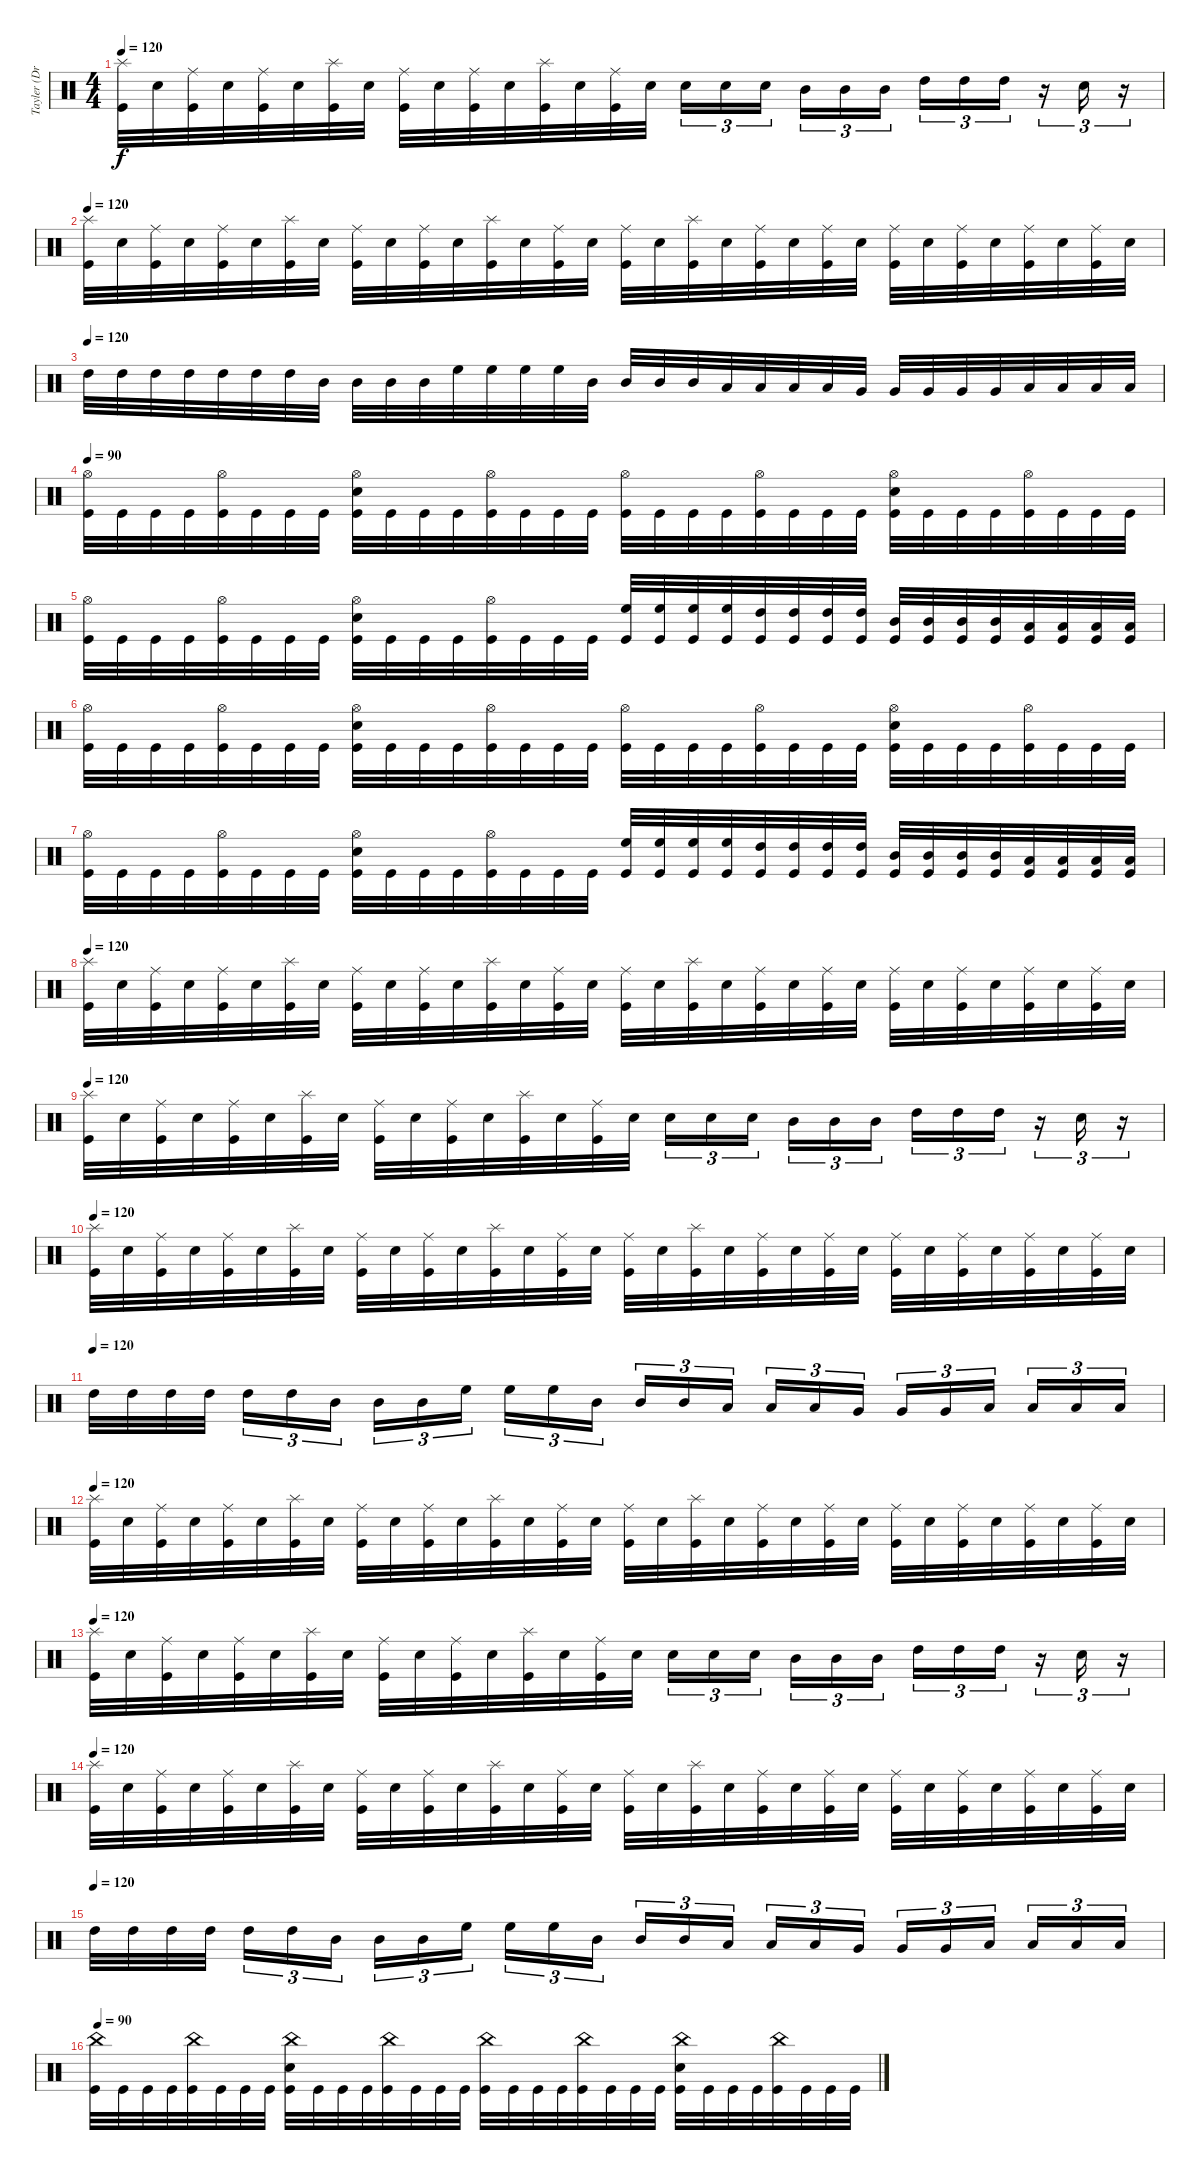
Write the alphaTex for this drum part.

\track ("Tayler (Drums)" "Tayler (Dr") {instrument percussion}
\staff {score}
\articulation defaults
\ts (4 4)
\tempo 120
\clef neutral
\ks c
("Splash (hit)" "Kick (hit)").32{dy f} "Electric Snare (hit)".32 ("Ride (middle)" "Kick (hit)").32 "Electric Snare (hit)".32 ("Ride (middle)" "Kick (hit)").32 "Electric Snare (hit)".32 ("Splash (hit)" "Kick (hit)").32 "Electric Snare (hit)".32 ("Ride (middle)" "Kick (hit)").32 "Electric Snare (hit)".32 ("Ride (middle)" "Kick (hit)").32 "Electric Snare (hit)".32 ("Splash (hit)" "Kick (hit)").32 "Electric Snare (hit)".32 ("Ride (middle)" "Kick (hit)").32 "Electric Snare (hit)".32 "Electric Snare (hit)".16{tu (3 2)} "Electric Snare (hit)".16{tu (3 2)} "Electric Snare (hit)".16{tu (3 2)} "Mid Tom (hit)".16{tu (3 2)} "Mid Tom (hit)".16{tu (3 2)} "Mid Tom (hit)".16{tu (3 2)} "High Tom (hit)".16{tu (3 2)} "High Tom (hit)".16{tu (3 2)} "High Tom (hit)".16{tu (3 2)} r.16{tu (3 2)} "Electric Snare (hit)".16{tu (3 2)} r.16{tu (3 2)} |
\tempo 120
("Splash (hit)" "Kick (hit)").32 "Electric Snare (hit)".32 ("Ride (middle)" "Kick (hit)").32 "Electric Snare (hit)".32 ("Ride (middle)" "Kick (hit)").32 "Electric Snare (hit)".32 ("Splash (hit)" "Kick (hit)").32 "Electric Snare (hit)".32 ("Ride (middle)" "Kick (hit)").32 "Electric Snare (hit)".32 ("Ride (middle)" "Kick (hit)").32 "Electric Snare (hit)".32 ("Splash (hit)" "Kick (hit)").32 "Electric Snare (hit)".32 ("Ride (middle)" "Kick (hit)").32 "Electric Snare (hit)".32 ("Ride (middle)" "Kick (hit)").32 "Electric Snare (hit)".32 ("Splash (hit)" "Kick (hit)").32 "Electric Snare (hit)".32 ("Ride (middle)" "Kick (hit)").32 "Electric Snare (hit)".32 ("Ride (middle)" "Kick (hit)").32 "Electric Snare (hit)".32 ("Ride (middle)" "Kick (hit)").32 "Electric Snare (hit)".32 ("Ride (middle)" "Kick (hit)").32 "Electric Snare (hit)".32 ("Ride (middle)" "Kick (hit)").32 "Electric Snare (hit)".32 ("Ride (middle)" "Kick (hit)").32 "Electric Snare (hit)".32 |
\tempo (120)
"High Tom (hit)".32 "High Tom (hit)".32 "High Tom (hit)".32 "High Tom (hit)".32 "High Tom (hit)".32 "High Tom (hit)".32 "High Tom (hit)".32 "Mid Tom (hit)".32 "Mid Tom (hit)".32 "Mid Tom (hit)".32 "Mid Tom (hit)".32 "High Floor Tom (hit)".32 "High Floor Tom (hit)".32 "High Floor Tom (hit)".32 "High Floor Tom (hit)".32 "Mid Tom (hit)".32 "Mid Tom (hit)".32 "Mid Tom (hit)".32 "Mid Tom (hit)".32 "Low Tom (hit)".32 "Low Tom (hit)".32 "Low Tom (hit)".32 "Low Tom (hit)".32 "Very Low Tom (hit)".32 "Very Low Tom (hit)".32 "Very Low Tom (hit)".32 "Very Low Tom (hit)".32 "Very Low Tom (hit)".32 "Low Floor Tom (hit)".32 "Low Floor Tom (hit)".32 "Low Floor Tom (hit)".32 "Low Floor Tom (hit)".32 |
\tempo 90
("Hi-Hat (open)" "Kick (hit)").32 "Kick (hit)".32 "Kick (hit)".32 "Kick (hit)".32 ("Hi-Hat (open)" "Kick (hit)").32 "Kick (hit)".32 "Kick (hit)".32 "Kick (hit)".32 ("Hi-Hat (open)" "Electric Snare (hit)" "Kick (hit)").32 "Kick (hit)".32 "Kick (hit)".32 "Kick (hit)".32 ("Hi-Hat (open)" "Kick (hit)").32 "Kick (hit)".32 "Kick (hit)".32 "Kick (hit)".32 ("Hi-Hat (open)" "Kick (hit)").32 "Kick (hit)".32 "Kick (hit)".32 "Kick (hit)".32 ("Hi-Hat (open)" "Kick (hit)").32 "Kick (hit)".32 "Kick (hit)".32 "Kick (hit)".32 ("Hi-Hat (open)" "Electric Snare (hit)" "Kick (hit)").32 "Kick (hit)".32 "Kick (hit)".32 "Kick (hit)".32 ("Hi-Hat (open)" "Kick (hit)").32 "Kick (hit)".32 "Kick (hit)".32 "Kick (hit)".32 |
("Hi-Hat (open)" "Kick (hit)").32 "Kick (hit)".32 "Kick (hit)".32 "Kick (hit)".32 ("Hi-Hat (open)" "Kick (hit)").32 "Kick (hit)".32 "Kick (hit)".32 "Kick (hit)".32 ("Hi-Hat (open)" "Electric Snare (hit)" "Kick (hit)").32 "Kick (hit)".32 "Kick (hit)".32 "Kick (hit)".32 ("Hi-Hat (open)" "Kick (hit)").32 "Kick (hit)".32 "Kick (hit)".32 "Kick (hit)".32 ("High Floor Tom (hit)" "Kick (hit)").32 ("High Floor Tom (hit)" "Kick (hit)").32 ("High Floor Tom (hit)" "Kick (hit)").32 ("High Floor Tom (hit)" "Kick (hit)").32 ("High Tom (hit)" "Kick (hit)").32 ("High Tom (hit)" "Kick (hit)").32 ("High Tom (hit)" "Kick (hit)").32 ("High Tom (hit)" "Kick (hit)").32 ("Mid Tom (hit)" "Kick (hit)").32 ("Mid Tom (hit)" "Kick (hit)").32 ("Mid Tom (hit)" "Kick (hit)").32 ("Mid Tom (hit)" "Kick (hit)").32 ("Low Tom (hit)" "Kick (hit)").32 ("Low Tom (hit)" "Kick (hit)").32 ("Low Tom (hit)" "Kick (hit)").32 ("Low Tom (hit)" "Kick (hit)").32 |
("Hi-Hat (open)" "Kick (hit)").32 "Kick (hit)".32 "Kick (hit)".32 "Kick (hit)".32 ("Hi-Hat (open)" "Kick (hit)").32 "Kick (hit)".32 "Kick (hit)".32 "Kick (hit)".32 ("Hi-Hat (open)" "Electric Snare (hit)" "Kick (hit)").32 "Kick (hit)".32 "Kick (hit)".32 "Kick (hit)".32 ("Hi-Hat (open)" "Kick (hit)").32 "Kick (hit)".32 "Kick (hit)".32 "Kick (hit)".32 ("Hi-Hat (open)" "Kick (hit)").32 "Kick (hit)".32 "Kick (hit)".32 "Kick (hit)".32 ("Hi-Hat (open)" "Kick (hit)").32 "Kick (hit)".32 "Kick (hit)".32 "Kick (hit)".32 ("Hi-Hat (open)" "Electric Snare (hit)" "Kick (hit)").32 "Kick (hit)".32 "Kick (hit)".32 "Kick (hit)".32 ("Hi-Hat (open)" "Kick (hit)").32 "Kick (hit)".32 "Kick (hit)".32 "Kick (hit)".32 |
("Hi-Hat (open)" "Kick (hit)").32 "Kick (hit)".32 "Kick (hit)".32 "Kick (hit)".32 ("Hi-Hat (open)" "Kick (hit)").32 "Kick (hit)".32 "Kick (hit)".32 "Kick (hit)".32 ("Hi-Hat (open)" "Electric Snare (hit)" "Kick (hit)").32 "Kick (hit)".32 "Kick (hit)".32 "Kick (hit)".32 ("Hi-Hat (open)" "Kick (hit)").32 "Kick (hit)".32 "Kick (hit)".32 "Kick (hit)".32 ("High Floor Tom (hit)" "Kick (hit)").32 ("High Floor Tom (hit)" "Kick (hit)").32 ("High Floor Tom (hit)" "Kick (hit)").32 ("High Floor Tom (hit)" "Kick (hit)").32 ("High Tom (hit)" "Kick (hit)").32 ("High Tom (hit)" "Kick (hit)").32 ("High Tom (hit)" "Kick (hit)").32 ("High Tom (hit)" "Kick (hit)").32 ("Mid Tom (hit)" "Kick (hit)").32 ("Mid Tom (hit)" "Kick (hit)").32 ("Mid Tom (hit)" "Kick (hit)").32 ("Mid Tom (hit)" "Kick (hit)").32 ("Low Tom (hit)" "Kick (hit)").32 ("Low Tom (hit)" "Kick (hit)").32 ("Low Tom (hit)" "Kick (hit)").32 ("Low Tom (hit)" "Kick (hit)").32 |
\tempo 120
("Splash (hit)" "Kick (hit)").32 "Electric Snare (hit)".32 ("Ride (middle)" "Kick (hit)").32 "Electric Snare (hit)".32 ("Ride (middle)" "Kick (hit)").32 "Electric Snare (hit)".32 ("Splash (hit)" "Kick (hit)").32 "Electric Snare (hit)".32 ("Ride (middle)" "Kick (hit)").32 "Electric Snare (hit)".32 ("Ride (middle)" "Kick (hit)").32 "Electric Snare (hit)".32 ("Splash (hit)" "Kick (hit)").32 "Electric Snare (hit)".32 ("Ride (middle)" "Kick (hit)").32 "Electric Snare (hit)".32 ("Ride (middle)" "Kick (hit)").32 "Electric Snare (hit)".32 ("Splash (hit)" "Kick (hit)").32 "Electric Snare (hit)".32 ("Ride (middle)" "Kick (hit)").32 "Electric Snare (hit)".32 ("Ride (middle)" "Kick (hit)").32 "Electric Snare (hit)".32 ("Ride (middle)" "Kick (hit)").32 "Electric Snare (hit)".32 ("Ride (middle)" "Kick (hit)").32 "Electric Snare (hit)".32 ("Ride (middle)" "Kick (hit)").32 "Electric Snare (hit)".32 ("Ride (middle)" "Kick (hit)").32 "Electric Snare (hit)".32 |
\tempo 120
("Splash (hit)" "Kick (hit)").32 "Electric Snare (hit)".32 ("Ride (middle)" "Kick (hit)").32 "Electric Snare (hit)".32 ("Ride (middle)" "Kick (hit)").32 "Electric Snare (hit)".32 ("Splash (hit)" "Kick (hit)").32 "Electric Snare (hit)".32 ("Ride (middle)" "Kick (hit)").32 "Electric Snare (hit)".32 ("Ride (middle)" "Kick (hit)").32 "Electric Snare (hit)".32 ("Splash (hit)" "Kick (hit)").32 "Electric Snare (hit)".32 ("Ride (middle)" "Kick (hit)").32 "Electric Snare (hit)".32 "Electric Snare (hit)".16{tu (3 2)} "Electric Snare (hit)".16{tu (3 2)} "Electric Snare (hit)".16{tu (3 2)} "Mid Tom (hit)".16{tu (3 2)} "Mid Tom (hit)".16{tu (3 2)} "Mid Tom (hit)".16{tu (3 2)} "High Tom (hit)".16{tu (3 2)} "High Tom (hit)".16{tu (3 2)} "High Tom (hit)".16{tu (3 2)} r.16{tu (3 2)} "Electric Snare (hit)".16{tu (3 2)} r.16{tu (3 2)} |
\tempo 120
("Splash (hit)" "Kick (hit)").32 "Electric Snare (hit)".32 ("Ride (middle)" "Kick (hit)").32 "Electric Snare (hit)".32 ("Ride (middle)" "Kick (hit)").32 "Electric Snare (hit)".32 ("Splash (hit)" "Kick (hit)").32 "Electric Snare (hit)".32 ("Ride (middle)" "Kick (hit)").32 "Electric Snare (hit)".32 ("Ride (middle)" "Kick (hit)").32 "Electric Snare (hit)".32 ("Splash (hit)" "Kick (hit)").32 "Electric Snare (hit)".32 ("Ride (middle)" "Kick (hit)").32 "Electric Snare (hit)".32 ("Ride (middle)" "Kick (hit)").32 "Electric Snare (hit)".32 ("Splash (hit)" "Kick (hit)").32 "Electric Snare (hit)".32 ("Ride (middle)" "Kick (hit)").32 "Electric Snare (hit)".32 ("Ride (middle)" "Kick (hit)").32 "Electric Snare (hit)".32 ("Ride (middle)" "Kick (hit)").32 "Electric Snare (hit)".32 ("Ride (middle)" "Kick (hit)").32 "Electric Snare (hit)".32 ("Ride (middle)" "Kick (hit)").32 "Electric Snare (hit)".32 ("Ride (middle)" "Kick (hit)").32 "Electric Snare (hit)".32 |
\tempo (120)
"High Tom (hit)".32 "High Tom (hit)".32 "High Tom (hit)".32 "High Tom (hit)".32 "High Tom (hit)".16{tu (3 2)} "High Tom (hit)".16{tu (3 2)} "Mid Tom (hit)".16{tu (3 2)} "Mid Tom (hit)".16{tu (3 2)} "Mid Tom (hit)".16{tu (3 2)} "High Floor Tom (hit)".16{tu (3 2)} "High Floor Tom (hit)".16{tu (3 2)} "High Floor Tom (hit)".16{tu (3 2)} "Mid Tom (hit)".16{tu (3 2)} "Mid Tom (hit)".16{tu (3 2)} "Mid Tom (hit)".16{tu (3 2)} "Low Tom (hit)".16{tu (3 2)} "Low Tom (hit)".16{tu (3 2)} "Low Tom (hit)".16{tu (3 2)} "Very Low Tom (hit)".16{tu (3 2)} "Very Low Tom (hit)".16{tu (3 2)} "Very Low Tom (hit)".16{tu (3 2)} "Low Floor Tom (hit)".16{tu (3 2)} "Low Floor Tom (hit)".16{tu (3 2)} "Low Floor Tom (hit)".16{tu (3 2)} "Low Floor Tom (hit)".16{tu (3 2)} |
\tempo 120
("Splash (hit)" "Kick (hit)").32 "Electric Snare (hit)".32 ("Ride (middle)" "Kick (hit)").32 "Electric Snare (hit)".32 ("Ride (middle)" "Kick (hit)").32 "Electric Snare (hit)".32 ("Splash (hit)" "Kick (hit)").32 "Electric Snare (hit)".32 ("Ride (middle)" "Kick (hit)").32 "Electric Snare (hit)".32 ("Ride (middle)" "Kick (hit)").32 "Electric Snare (hit)".32 ("Splash (hit)" "Kick (hit)").32 "Electric Snare (hit)".32 ("Ride (middle)" "Kick (hit)").32 "Electric Snare (hit)".32 ("Ride (middle)" "Kick (hit)").32 "Electric Snare (hit)".32 ("Splash (hit)" "Kick (hit)").32 "Electric Snare (hit)".32 ("Ride (middle)" "Kick (hit)").32 "Electric Snare (hit)".32 ("Ride (middle)" "Kick (hit)").32 "Electric Snare (hit)".32 ("Ride (middle)" "Kick (hit)").32 "Electric Snare (hit)".32 ("Ride (middle)" "Kick (hit)").32 "Electric Snare (hit)".32 ("Ride (middle)" "Kick (hit)").32 "Electric Snare (hit)".32 ("Ride (middle)" "Kick (hit)").32 "Electric Snare (hit)".32 |
\tempo 120
("Splash (hit)" "Kick (hit)").32 "Electric Snare (hit)".32 ("Ride (middle)" "Kick (hit)").32 "Electric Snare (hit)".32 ("Ride (middle)" "Kick (hit)").32 "Electric Snare (hit)".32 ("Splash (hit)" "Kick (hit)").32 "Electric Snare (hit)".32 ("Ride (middle)" "Kick (hit)").32 "Electric Snare (hit)".32 ("Ride (middle)" "Kick (hit)").32 "Electric Snare (hit)".32 ("Splash (hit)" "Kick (hit)").32 "Electric Snare (hit)".32 ("Ride (middle)" "Kick (hit)").32 "Electric Snare (hit)".32 "Electric Snare (hit)".16{tu (3 2)} "Electric Snare (hit)".16{tu (3 2)} "Electric Snare (hit)".16{tu (3 2)} "Mid Tom (hit)".16{tu (3 2)} "Mid Tom (hit)".16{tu (3 2)} "Mid Tom (hit)".16{tu (3 2)} "High Tom (hit)".16{tu (3 2)} "High Tom (hit)".16{tu (3 2)} "High Tom (hit)".16{tu (3 2)} r.16{tu (3 2)} "Electric Snare (hit)".16{tu (3 2)} r.16{tu (3 2)} |
\tempo 120
("Splash (hit)" "Kick (hit)").32 "Electric Snare (hit)".32 ("Ride (middle)" "Kick (hit)").32 "Electric Snare (hit)".32 ("Ride (middle)" "Kick (hit)").32 "Electric Snare (hit)".32 ("Splash (hit)" "Kick (hit)").32 "Electric Snare (hit)".32 ("Ride (middle)" "Kick (hit)").32 "Electric Snare (hit)".32 ("Ride (middle)" "Kick (hit)").32 "Electric Snare (hit)".32 ("Splash (hit)" "Kick (hit)").32 "Electric Snare (hit)".32 ("Ride (middle)" "Kick (hit)").32 "Electric Snare (hit)".32 ("Ride (middle)" "Kick (hit)").32 "Electric Snare (hit)".32 ("Splash (hit)" "Kick (hit)").32 "Electric Snare (hit)".32 ("Ride (middle)" "Kick (hit)").32 "Electric Snare (hit)".32 ("Ride (middle)" "Kick (hit)").32 "Electric Snare (hit)".32 ("Ride (middle)" "Kick (hit)").32 "Electric Snare (hit)".32 ("Ride (middle)" "Kick (hit)").32 "Electric Snare (hit)".32 ("Ride (middle)" "Kick (hit)").32 "Electric Snare (hit)".32 ("Ride (middle)" "Kick (hit)").32 "Electric Snare (hit)".32 |
\tempo (120)
"High Tom (hit)".32 "High Tom (hit)".32 "High Tom (hit)".32 "High Tom (hit)".32 "High Tom (hit)".16{tu (3 2)} "High Tom (hit)".16{tu (3 2)} "Mid Tom (hit)".16{tu (3 2)} "Mid Tom (hit)".16{tu (3 2)} "Mid Tom (hit)".16{tu (3 2)} "High Floor Tom (hit)".16{tu (3 2)} "High Floor Tom (hit)".16{tu (3 2)} "High Floor Tom (hit)".16{tu (3 2)} "Mid Tom (hit)".16{tu (3 2)} "Mid Tom (hit)".16{tu (3 2)} "Mid Tom (hit)".16{tu (3 2)} "Low Tom (hit)".16{tu (3 2)} "Low Tom (hit)".16{tu (3 2)} "Low Tom (hit)".16{tu (3 2)} "Very Low Tom (hit)".16{tu (3 2)} "Very Low Tom (hit)".16{tu (3 2)} "Very Low Tom (hit)".16{tu (3 2)} "Low Floor Tom (hit)".16{tu (3 2)} "Low Floor Tom (hit)".16{tu (3 2)} "Low Floor Tom (hit)".16{tu (3 2)} "Low Floor Tom (hit)".16{tu (3 2)} |
\tempo 90
("China (hit)" "Kick (hit)").32 "Kick (hit)".32 "Kick (hit)".32 "Kick (hit)".32 ("China (hit)" "Kick (hit)").32 "Kick (hit)".32 "Kick (hit)".32 "Kick (hit)".32 ("China (hit)" "Electric Snare (hit)" "Kick (hit)").32 "Kick (hit)".32 "Kick (hit)".32 "Kick (hit)".32 ("China (hit)" "Kick (hit)").32 "Kick (hit)".32 "Kick (hit)".32 "Kick (hit)".32 ("China (hit)" "Kick (hit)").32 "Kick (hit)".32 "Kick (hit)".32 "Kick (hit)".32 ("China (hit)" "Kick (hit)").32 "Kick (hit)".32 "Kick (hit)".32 "Kick (hit)".32 ("China (hit)" "Electric Snare (hit)" "Kick (hit)").32 "Kick (hit)".32 "Kick (hit)".32 "Kick (hit)".32 ("China (hit)" "Kick (hit)").32 "Kick (hit)".32 "Kick (hit)".32 "Kick (hit)".32
